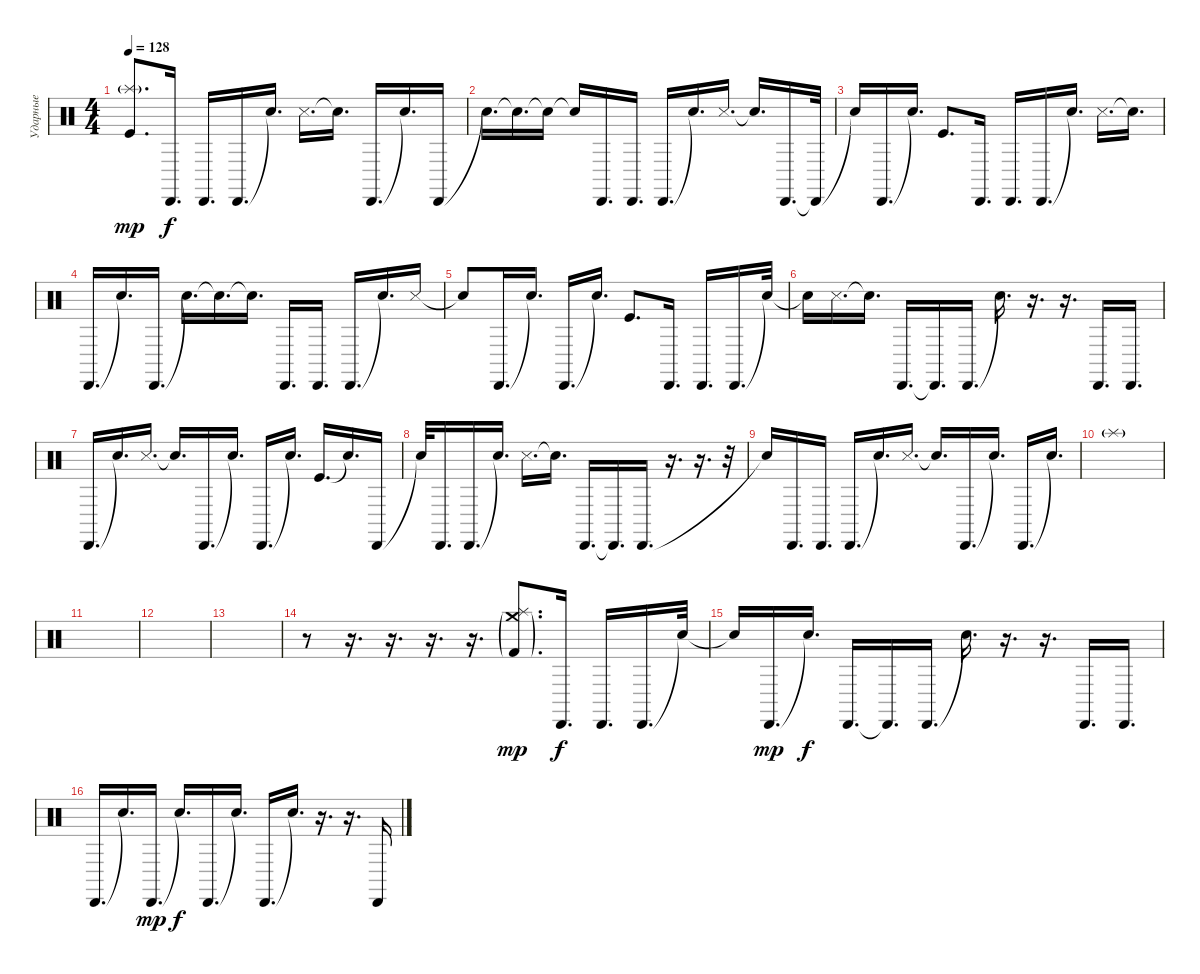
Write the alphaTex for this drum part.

\track ("Ударные" "Ударные") {instrument percussion}
\staff {score}
\articulation defaults
\ts (4 4)
\tempo 128
\clef neutral
\ks c
("Splash (hit)"{g} "Kick (hit)").8{d dy mp} "Cabasa (hit)".16{d dy f} "Cabasa (hit)".16{d} "Cabasa (hit)".16{d} "Snare (hit)"{t}.16{d} "Metronome (hit)".16{d} "Snare (hit)"{t}.16{d} "Cabasa (hit)".16{d} "Snare (hit)"{t}.16{d} "Cabasa (hit)".16 |
"Snare (hit)"{t}.16{d} "Snare (hit)"{t}.16{d} "Snare (hit)"{t}.16 "Snare (hit)"{t}.16 "Cabasa (hit)".16{d} "Cabasa (hit)".16{d} "Cabasa (hit)".16{d} "Snare (hit)"{t}.16{d} "Metronome (hit)".16{d} "Snare (hit)"{t}.16{d} "Cabasa (hit)".16{d} "Cabasa (hit)"{t}.32 |
"Snare (hit)"{t}.16 "Cabasa (hit)".16{d} "Snare (hit)"{t}.16{d} "Kick (hit)".8{d} "Cabasa (hit)".16{d} "Cabasa (hit)".16{d} "Cabasa (hit)".16{d} "Snare (hit)"{t}.16{d} "Metronome (hit)".16{d} "Snare (hit)"{t}.16{d} |
"Cabasa (hit)".16{d} "Snare (hit)"{t}.16{d} "Cabasa (hit)".16{d} "Snare (hit)"{t}.16{d} "Snare (hit)"{t}.16{d} "Snare (hit)"{t}.16{d} "Cabasa (hit)".16{d} "Cabasa (hit)".16{d} "Cabasa (hit)".16{d} "Snare (hit)"{t}.16{d} "Metronome (hit)".16 |
"Snare (hit)"{t}.8 "Cabasa (hit)".16{d} "Snare (hit)"{t}.16{d} "Cabasa (hit)".16{d} "Snare (hit)"{t}.16{d} "Kick (hit)".8{d} "Cabasa (hit)".16{d} "Cabasa (hit)".16{d} "Cabasa (hit)".16{d} "Snare (hit)"{t}.32 |
"Snare (hit)"{t}.16 "Metronome (hit)".16{d} "Snare (hit)"{t}.16{d} "Cabasa (hit)".16{d} "Cabasa (hit)"{t}.16{d} "Cabasa (hit)".16{d} "Snare (hit)"{t}.16{d} r.16{d} r.16{d} "Cabasa (hit)".16{d} "Cabasa (hit)".16{d} |
"Cabasa (hit)".16{d} "Snare (hit)"{t}.16{d} "Metronome (hit)".16{d} "Snare (hit)"{t}.16{d} "Cabasa (hit)".16{d} "Snare (hit)"{t}.16{d} "Cabasa (hit)".16{d} "Snare (hit)"{t}.16{d} "Kick (hit)".16{d} "Snare (hit)"{t}.16{d} "Cabasa (hit)".16 |
"Snare (hit)"{t}.32 "Cabasa (hit)".16{d} "Cabasa (hit)".16{d} "Snare (hit)"{t}.16{d} "Metronome (hit)".16{d} "Snare (hit)"{t}.16{d} "Cabasa (hit)".16{d} "Cabasa (hit)"{t}.16{d} "Cabasa (hit)".16{d} r.16{d} r.16{d} r.32 |
"Snare (hit)"{t}.16 "Cabasa (hit)".16{d} "Cabasa (hit)".16{d} "Cabasa (hit)".16{d} "Snare (hit)"{t}.16{d} "Metronome (hit)".16{d} "Snare (hit)"{t}.16{d} "Cabasa (hit)".16{d} "Snare (hit)"{t}.16{d} "Cabasa (hit)".16{d} "Snare (hit)"{t}.16{d} |
"Splash (hit)"{g}.1 |
|
|
|
r.8 r.16{d} r.16{d} r.16{d} r.16{d} ("Crash medium (hit)"{g} "Splash (hit)" "Kick (hit) 2"{g}).8{d dy mp} "Cabasa (hit)".16{d dy f} "Cabasa (hit)".16{d} "Cabasa (hit)".16{d} "Snare (hit)"{t}.32 |
"Snare (hit)"{t}.16 "Cabasa (hit)".16{d dy mp} "Snare (hit)"{t}.16{d dy f} "Cabasa (hit)".16{d} "Cabasa (hit)"{t}.16{d} "Cabasa (hit)".16{d} "Snare (hit)"{t}.16{d} r.16{d} r.16{d} "Cabasa (hit)".16{d} "Cabasa (hit)".16{d} |
"Cabasa (hit)".16{d} "Snare (hit)"{t}.16{d} "Cabasa (hit)".16{d dy mp} "Snare (hit)"{t}.16{d dy f} "Cabasa (hit)".16{d} "Snare (hit)"{t}.16{d} "Cabasa (hit)".16{d} "Snare (hit)"{t}.16{d} r.16{d} r.16{d} "Cabasa (hit)".16
